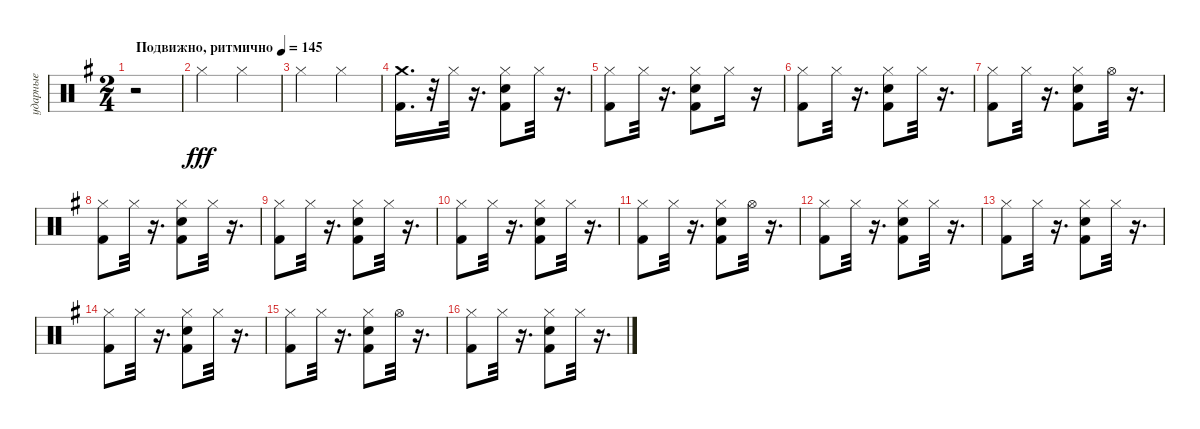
\track ("ударные" "ударные") {instrument percussion}
\staff {score}
\articulation defaults
\ts (2 4)
\tempo (145 "Подвижно, ритмично")
\clef neutral
\ks eminor
r.2{dy fff} |
"Hi-Hat (closed)".4 "Hi-Hat (closed)".4 |
"Hi-Hat (closed)".4 "Hi-Hat (closed)".4 |
("Kick (hit) 2" "Crash medium (hit)").16{d} r.32 "Hi-Hat (closed)".32 r.16{d} ("Kick (hit) 2" "Snare (hit) 2" "Hi-Hat (closed)").8 "Hi-Hat (closed)".32 r.16{d} |
("Kick (hit) 2" "Hi-Hat (closed)").8 "Hi-Hat (closed)".32 r.16{d} ("Snare (hit) 2" "Kick (hit) 2" "Hi-Hat (closed)").8 "Hi-Hat (closed)".16 r.16 |
("Kick (hit) 2" "Hi-Hat (closed)").8 "Hi-Hat (closed)".32 r.16{d} ("Kick (hit) 2" "Hi-Hat (closed)" "Snare (hit) 2").8 "Hi-Hat (closed)".32 r.16{d} |
("Kick (hit) 2" "Hi-Hat (closed)").8 "Hi-Hat (closed)".32 r.16{d} ("Hi-Hat (closed)" "Kick (hit) 2" "Snare (hit) 2").8 "Hi-Hat (open)".32 r.16{d} |
("Kick (hit) 2" "Hi-Hat (closed)").8 "Hi-Hat (closed)".32 r.16{d} ("Kick (hit) 2" "Hi-Hat (closed)" "Snare (hit) 2").8 "Hi-Hat (closed)".32 r.16{d} |
("Kick (hit) 2" "Hi-Hat (closed)").8 "Hi-Hat (closed)".32 r.16{d} ("Hi-Hat (closed)" "Snare (hit) 2" "Kick (hit) 2").8 "Hi-Hat (closed)".32 r.16{d} |
("Kick (hit) 2" "Hi-Hat (closed)").8 "Hi-Hat (closed)".32 r.16{d} ("Snare (hit) 2" "Kick (hit) 2" "Hi-Hat (closed)").8 "Hi-Hat (closed)".32 r.16{d} |
("Kick (hit) 2" "Hi-Hat (closed)").8 "Hi-Hat (closed)".32 r.16{d} ("Hi-Hat (closed)" "Snare (hit) 2" "Kick (hit) 2").8 "Hi-Hat (open)".32 r.16{d} |
("Kick (hit) 2" "Hi-Hat (closed)").8 "Hi-Hat (closed)".32 r.16{d} ("Hi-Hat (closed)" "Snare (hit) 2" "Kick (hit) 2").8 "Hi-Hat (closed)".32 r.16{d} |
("Kick (hit) 2" "Hi-Hat (closed)").8 "Hi-Hat (closed)".32 r.16{d} ("Kick (hit) 2" "Hi-Hat (closed)" "Snare (hit) 2").8 "Hi-Hat (closed)".32 r.16{d} |
("Kick (hit) 2" "Hi-Hat (closed)").8 "Hi-Hat (closed)".32 r.16{d} ("Snare (hit) 2" "Kick (hit) 2" "Hi-Hat (closed)").8 "Hi-Hat (closed)".32 r.16{d} |
("Kick (hit) 2" "Hi-Hat (closed)").8 "Hi-Hat (closed)".32 r.16{d} ("Snare (hit) 2" "Kick (hit) 2" "Hi-Hat (closed)").8 "Hi-Hat (open)".32 r.16{d} |
("Kick (hit) 2" "Hi-Hat (closed)").8 "Hi-Hat (closed)".32 r.16{d} ("Snare (hit) 2" "Kick (hit) 2" "Hi-Hat (closed)").8 "Hi-Hat (closed)".32 r.16{d}
